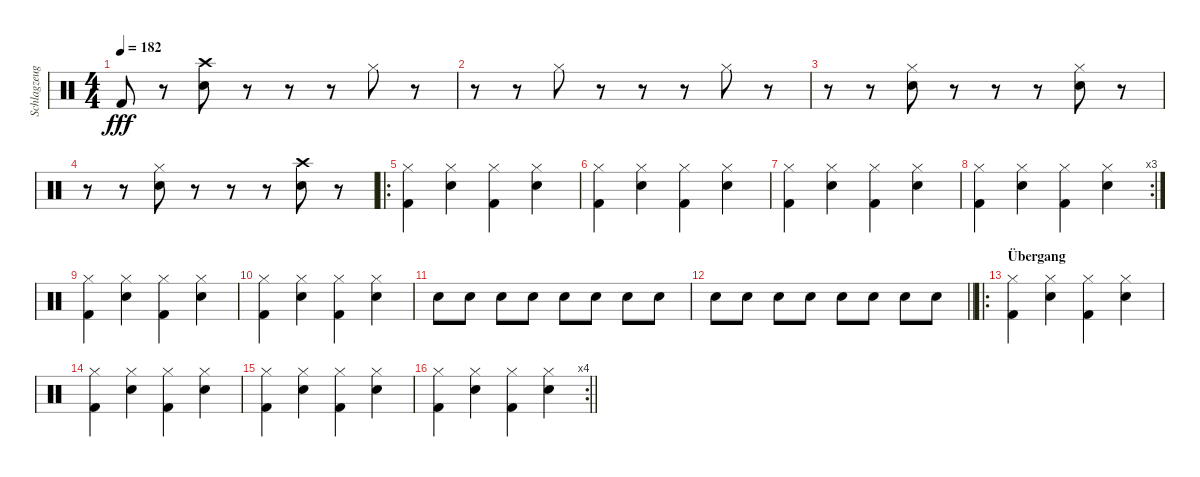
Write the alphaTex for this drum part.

\track ("Schlagzeug" "Schlagzeug") {instrument percussion}
\staff {score}
\articulation defaults
\ts (4 4)
\tempo 182
\clef neutral
\ks c "Kick (hit) 2".8{dy fff}
r.8 ("Crash high (hit)" "Snare (hit) 2").8 r.8 r.8 r.8 "Hi-Hat (closed)".8 r.8 |
r.8 r.8 "Hi-Hat (closed)".8 r.8 r.8 r.8 "Hi-Hat (closed)".8 r.8 |
r.8 r.8 ("Hi-Hat (closed)" "Snare (hit) 2").8 r.8 r.8 r.8 ("Hi-Hat (closed)" "Snare (hit) 2").8 r.8 |
r.8 r.8 ("Hi-Hat (closed)" "Snare (hit) 2").8 r.8 r.8 r.8 ("Crash high (hit)" "Snare (hit) 2").8 r.8 |
\ro
("Hi-Hat (closed)" "Kick (hit) 2").4 ("Hi-Hat (closed)" "Snare (hit) 2").4 ("Hi-Hat (closed)" "Kick (hit) 2").4 ("Hi-Hat (closed)" "Snare (hit) 2").4 |
("Hi-Hat (closed)" "Kick (hit) 2").4 ("Hi-Hat (closed)" "Snare (hit) 2").4 ("Hi-Hat (closed)" "Kick (hit) 2").4 ("Hi-Hat (closed)" "Snare (hit) 2").4 |
("Hi-Hat (closed)" "Kick (hit) 2").4 ("Hi-Hat (closed)" "Snare (hit) 2").4 ("Hi-Hat (closed)" "Kick (hit) 2").4 ("Hi-Hat (closed)" "Snare (hit) 2").4 |
\rc 3
("Hi-Hat (closed)" "Kick (hit) 2").4 ("Hi-Hat (closed)" "Snare (hit) 2").4 ("Hi-Hat (closed)" "Kick (hit) 2").4 ("Hi-Hat (closed)" "Snare (hit) 2").4 |
("Hi-Hat (closed)" "Kick (hit) 2").4 ("Hi-Hat (closed)" "Snare (hit) 2").4 ("Hi-Hat (closed)" "Kick (hit) 2").4 ("Hi-Hat (closed)" "Snare (hit) 2").4 |
("Hi-Hat (closed)" "Kick (hit) 2").4 ("Hi-Hat (closed)" "Snare (hit) 2").4 ("Hi-Hat (closed)" "Kick (hit) 2").4 ("Hi-Hat (closed)" "Snare (hit) 2").4 |
"Snare (hit) 2".8 "Snare (hit) 2".8 "Snare (hit) 2".8 "Snare (hit) 2".8 "Snare (hit) 2".8 "Snare (hit) 2".8 "Snare (hit) 2".8 "Snare (hit) 2".8 |
\barLineRight lightlight "Snare (hit) 2".8 "Snare (hit) 2".8 "Snare (hit) 2".8 "Snare (hit) 2".8 "Snare (hit) 2".8 "Snare (hit) 2".8 "Snare (hit) 2".8 "Snare (hit) 2".8
|
\ro
\section ("" "Übergang")
("Hi-Hat (closed)" "Kick (hit) 2").4 ("Hi-Hat (closed)" "Snare (hit) 2").4 ("Hi-Hat (closed)" "Kick (hit) 2").4 ("Hi-Hat (closed)" "Snare (hit) 2").4 |
("Hi-Hat (closed)" "Kick (hit) 2").4 ("Hi-Hat (closed)" "Snare (hit) 2").4 ("Hi-Hat (closed)" "Kick (hit) 2").4 ("Hi-Hat (closed)" "Snare (hit) 2").4 |
("Hi-Hat (closed)" "Kick (hit) 2").4 ("Hi-Hat (closed)" "Snare (hit) 2").4 ("Hi-Hat (closed)" "Kick (hit) 2").4 ("Hi-Hat (closed)" "Snare (hit) 2").4 |
\rc 4
\barLineRight lightlight
("Hi-Hat (closed)" "Kick (hit) 2").4 ("Hi-Hat (closed)" "Snare (hit) 2").4 ("Hi-Hat (closed)" "Kick (hit) 2").4 ("Hi-Hat (closed)" "Snare (hit) 2").4
